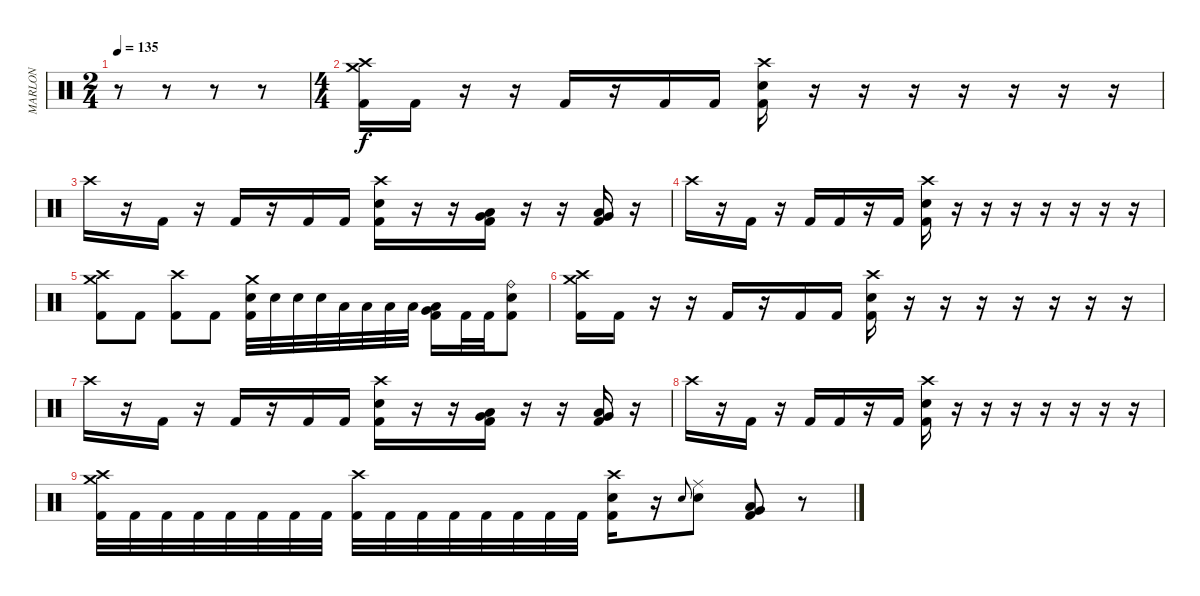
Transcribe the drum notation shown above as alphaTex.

\track ("MARLON" "MARLON") {instrument percussion}
\staff {score}
\articulation defaults
\ts (2 4)
\tempo 135
\clef neutral
\ks c
r.8{dy f} r.8 r.8 r.8 |
\ts (4 4)
("Crash high (hit)" "Crash medium (hit)" "Kick (hit) 2").16 "Kick (hit) 2".16 r.16 r.16 "Kick (hit) 2".16 r.16 "Kick (hit) 2".16 "Kick (hit) 2".16 ("Crash high (hit)" "Electric Snare (hit)" "Kick (hit) 2").16 r.16 r.16 r.16 r.16 r.16 r.16 r.16 |
"Crash high (hit)".16 r.16 "Kick (hit) 2".16 r.16 "Kick (hit) 2".16 r.16 "Kick (hit) 2".16 "Kick (hit) 2".16 ("Crash high (hit)" "Electric Snare (hit)" "Kick (hit) 2").16 r.16 r.16 ("Low Tom (hit)" "Very Low Tom (hit)" "Kick (hit) 2").16 r.16 r.16 ("Low Tom (hit)" "Very Low Tom (hit)" "Kick (hit) 2").16 r.16 |
"Crash high (hit)".16 r.16 "Kick (hit) 2".16 r.16 "Kick (hit) 2".16 "Kick (hit) 2".16 r.16 "Kick (hit) 2".16 ("Crash high (hit)" "Electric Snare (hit)" "Kick (hit) 2").16 r.16 r.16 r.16 r.16 r.16 r.16 r.16 |
("Crash high (hit)" "Crash medium (hit)" "Kick (hit) 2").8 "Kick (hit) 2".8 ("Crash high (hit)" "Kick (hit) 2").8 "Kick (hit) 2".8 ("Crash medium (hit)" "Electric Snare (hit)" "Kick (hit) 2").32 "Electric Snare (hit)".32 "Electric Snare (hit)".32 "Electric Snare (hit)".32 "Low Tom (hit)".32 "Low Tom (hit)".32 "Low Tom (hit)".32 "Low Tom (hit)".32 ("Low Tom (hit)" "Very Low Tom (hit)" "Kick (hit) 2").16 "Kick (hit) 2".32 "Kick (hit) 2".32 ("Ride (bell)" "Electric Snare (hit)" "Kick (hit) 2").8 |
("Crash high (hit)" "Crash medium (hit)" "Kick (hit) 2").16 "Kick (hit) 2".16 r.16 r.16 "Kick (hit) 2".16 r.16 "Kick (hit) 2".16 "Kick (hit) 2".16 ("Crash high (hit)" "Electric Snare (hit)" "Kick (hit) 2").16 r.16 r.16 r.16 r.16 r.16 r.16 r.16 |
"Crash high (hit)".16 r.16 "Kick (hit) 2".16 r.16 "Kick (hit) 2".16 r.16 "Kick (hit) 2".16 "Kick (hit) 2".16 ("Crash high (hit)" "Electric Snare (hit)" "Kick (hit) 2").16 r.16 r.16 ("Low Tom (hit)" "Very Low Tom (hit)" "Kick (hit) 2").16 r.16 r.16 ("Low Tom (hit)" "Very Low Tom (hit)" "Kick (hit) 2").16 r.16 |
"Crash high (hit)".16 r.16 "Kick (hit) 2".16 r.16 "Kick (hit) 2".16 "Kick (hit) 2".16 r.16 "Kick (hit) 2".16 ("Crash high (hit)" "Electric Snare (hit)" "Kick (hit) 2").16 r.16 r.16 r.16 r.16 r.16 r.16 r.16 |
("Crash high (hit)" "Crash medium (hit)" "Kick (hit) 2").32 "Kick (hit) 2".32 "Kick (hit) 2".32 "Kick (hit) 2".32 "Kick (hit) 2".32 "Kick (hit) 2".32 "Kick (hit) 2".32 "Kick (hit) 2".32 ("Crash high (hit)" "Kick (hit) 2").32 "Kick (hit) 2".32 "Kick (hit) 2".32 "Kick (hit) 2".32 "Kick (hit) 2".32 "Kick (hit) 2".32 "Kick (hit) 2".32 "Kick (hit) 2".32 ("Crash high (hit)" "Electric Snare (hit)" "Kick (hit) 2").16 r.16 "Electric Snare (hit)".8{gr onbeat} ("Ride (middle)" "Electric Snare (hit)").8 ("Low Tom (hit)" "Very Low Tom (hit)" "Kick (hit) 2").8 r.8
